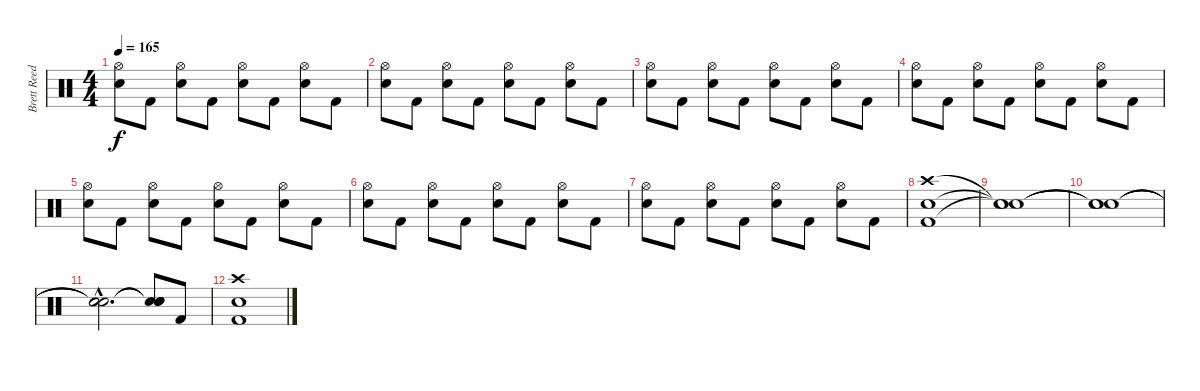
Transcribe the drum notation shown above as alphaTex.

\track ("Brett Reed - Drums" "Brett Reed") {instrument percussion}
\staff {score}
\articulation defaults
\ts (4 4)
\tempo 165
\clef neutral
\ks c
("Hi-Hat (open)" "Electric Snare (hit)").8{dy f} "Kick (hit) 2".8 ("Hi-Hat (open)" "Electric Snare (hit)").8 "Kick (hit) 2".8 ("Hi-Hat (open)" "Electric Snare (hit)").8 "Kick (hit) 2".8 ("Hi-Hat (open)" "Electric Snare (hit)").8 "Kick (hit) 2".8 |
("Hi-Hat (open)" "Electric Snare (hit)").8 "Kick (hit) 2".8 ("Hi-Hat (open)" "Electric Snare (hit)").8 "Kick (hit) 2".8 ("Hi-Hat (open)" "Electric Snare (hit)").8 "Kick (hit) 2".8 ("Hi-Hat (open)" "Electric Snare (hit)").8 "Kick (hit) 2".8 |
("Hi-Hat (open)" "Electric Snare (hit)").8 "Kick (hit) 2".8 ("Hi-Hat (open)" "Electric Snare (hit)").8 "Kick (hit) 2".8 ("Hi-Hat (open)" "Electric Snare (hit)").8 "Kick (hit) 2".8 ("Hi-Hat (open)" "Electric Snare (hit)").8 "Kick (hit) 2".8 |
("Hi-Hat (open)" "Electric Snare (hit)").8 "Kick (hit) 2".8 ("Hi-Hat (open)" "Electric Snare (hit)").8 "Kick (hit) 2".8 ("Hi-Hat (open)" "Electric Snare (hit)").8 "Kick (hit) 2".8 ("Hi-Hat (open)" "Electric Snare (hit)").8 "Kick (hit) 2".8 |
("Hi-Hat (open)" "Electric Snare (hit)").8 "Kick (hit) 2".8 ("Hi-Hat (open)" "Electric Snare (hit)").8 "Kick (hit) 2".8 ("Hi-Hat (open)" "Electric Snare (hit)").8 "Kick (hit) 2".8 ("Hi-Hat (open)" "Electric Snare (hit)").8 "Kick (hit) 2".8 |
("Hi-Hat (open)" "Electric Snare (hit)").8 "Kick (hit) 2".8 ("Hi-Hat (open)" "Electric Snare (hit)").8 "Kick (hit) 2".8 ("Hi-Hat (open)" "Electric Snare (hit)").8 "Kick (hit) 2".8 ("Hi-Hat (open)" "Electric Snare (hit)").8 "Kick (hit) 2".8 |
("Hi-Hat (open)" "Electric Snare (hit)").8 "Kick (hit) 2".8 ("Hi-Hat (open)" "Electric Snare (hit)").8 "Kick (hit) 2".8 ("Hi-Hat (open)" "Electric Snare (hit)").8 "Kick (hit) 2".8 ("Hi-Hat (open)" "Electric Snare (hit)").8 "Kick (hit) 2".8 |
("Crash high (hit)" "Electric Snare (hit)" "Kick (hit) 2").1 |
("Snare (hit)"{t} "Snare (hit)"{t} "Snare (hit)"{t}).1 |
("Snare (hit)"{t} "Snare (hit)"{t} "Snare (hit)"{t}).1 |
("Snare (hit)"{hac t} "Snare (hit)"{hac t} "Snare (hit)"{hac t}).2{d} ("Snare (hit)"{t} "Snare (hit)"{t} "Snare (hit)"{t}).8 "Kick (hit) 2".8 |
("Crash high (hit)" "Electric Snare (hit)" "Kick (hit) 2").1
